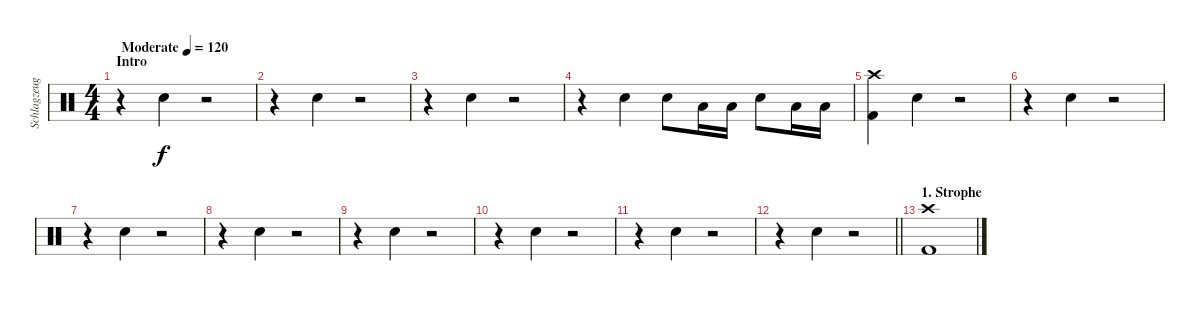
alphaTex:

\track ("Schlagzeug" "Schlagzeug") {instrument percussion}
\staff {score}
\articulation defaults
\ts (4 4)
\section ("" "Intro")
\tempo (120 "Moderate")
\clef neutral
\ks c
r.4{dy f} "Snare (hit) 2".4 r.2 |
r.4 "Snare (hit) 2".4 r.2 |
r.4 "Snare (hit) 2".4 r.2 |
r.4 "Snare (hit) 2".4 "Snare (hit) 2".8 "Low Tom (hit)".16 "Low Tom (hit)".16 "Snare (hit) 2".8 "Low Tom (hit)".16 "Low Tom (hit)".16 |
("Crash high (hit)" "Kick (hit) 2").4 "Snare (hit) 2".4 r.2 |
r.4 "Snare (hit) 2".4 r.2 |
r.4 "Snare (hit) 2".4 r.2 |
r.4 "Snare (hit) 2".4 r.2 |
r.4 "Snare (hit) 2".4 r.2 |
r.4 "Snare (hit) 2".4 r.2 |
r.4 "Snare (hit) 2".4 r.2 |
\barLineRight lightlight
r.4 "Snare (hit) 2".4 r.2 |
\section ("" "1. Strophe")
("Crash high (hit)" "Kick (hit) 2").1
